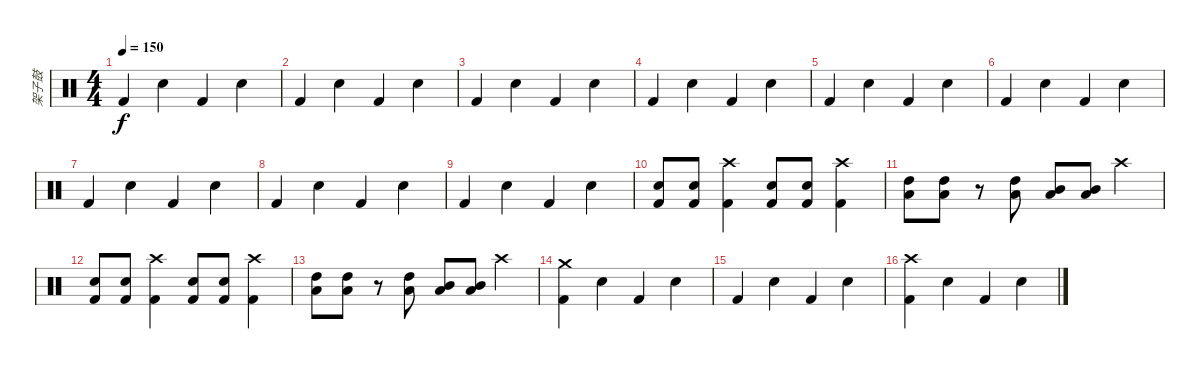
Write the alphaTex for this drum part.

\track ("架子鼓" "架子鼓") {instrument percussion}
\staff {score}
\articulation defaults
\ts (4 4)
\tempo 150
\clef neutral
\ks c "Kick (hit) 2".4{dy f} "Snare (hit) 2".4 "Kick (hit) 2".4 "Snare (hit) 2".4
|
"Kick (hit) 2".4 "Snare (hit) 2".4 "Kick (hit) 2".4 "Snare (hit) 2".4 |
"Kick (hit) 2".4 "Snare (hit) 2".4 "Kick (hit) 2".4 "Snare (hit) 2".4 |
"Kick (hit) 2".4 "Snare (hit) 2".4 "Kick (hit) 2".4 "Snare (hit) 2".4 |
"Kick (hit) 2".4 "Snare (hit) 2".4 "Kick (hit) 2".4 "Snare (hit) 2".4 |
"Kick (hit) 2".4 "Snare (hit) 2".4 "Kick (hit) 2".4 "Snare (hit) 2".4 |
"Kick (hit) 2".4 "Snare (hit) 2".4 "Kick (hit) 2".4 "Snare (hit) 2".4 |
"Kick (hit) 2".4 "Snare (hit) 2".4 "Kick (hit) 2".4 "Snare (hit) 2".4 |
"Kick (hit) 2".4 "Snare (hit) 2".4 "Kick (hit) 2".4 "Snare (hit) 2".4 |
("Kick (hit) 2" "Snare (hit) 2").8 ("Kick (hit) 2" "Snare (hit) 2").8 ("Crash high (hit)" "Kick (hit) 2").4 ("Kick (hit) 2" "Snare (hit) 2").8 ("Kick (hit) 2" "Snare (hit) 2").8 ("Crash high (hit)" "Kick (hit) 2").4 |
("High Tom (hit)" "Low Tom (hit)").8 ("High Tom (hit)" "Low Tom (hit)").8 r.8 ("High Tom (hit)" "Low Tom (hit)").8 ("Mid Tom (hit)" "Low Tom (hit)").8 ("Mid Tom (hit)" "Low Tom (hit)").8 "Crash high (hit)".4 |
("Kick (hit) 2" "Snare (hit) 2").8 ("Kick (hit) 2" "Snare (hit) 2").8 ("Crash high (hit)" "Kick (hit) 2").4 ("Kick (hit) 2" "Snare (hit) 2").8 ("Kick (hit) 2" "Snare (hit) 2").8 ("Crash high (hit)" "Kick (hit) 2").4 |
("High Tom (hit)" "Low Tom (hit)").8 ("High Tom (hit)" "Low Tom (hit)").8 r.8 ("High Tom (hit)" "Low Tom (hit)").8 ("Mid Tom (hit)" "Low Tom (hit)").8 ("Mid Tom (hit)" "Low Tom (hit)").8 "Crash high (hit)".4 |
("Crash medium (hit)" "Kick (hit) 2").4 "Snare (hit) 2".4 "Kick (hit) 2".4 "Snare (hit) 2".4 |
"Kick (hit) 2".4 "Snare (hit) 2".4 "Kick (hit) 2".4 "Snare (hit) 2".4 |
("Crash high (hit)" "Kick (hit) 2").4 "Snare (hit) 2".4 "Kick (hit) 2".4 "Snare (hit) 2".4
